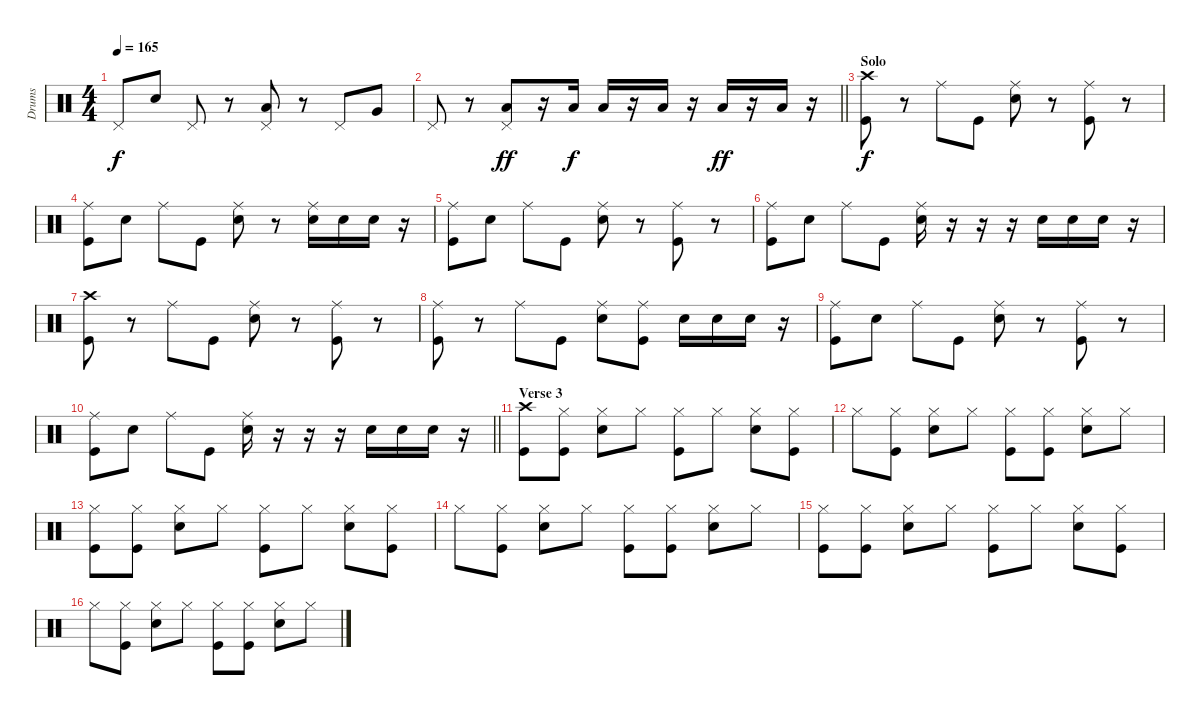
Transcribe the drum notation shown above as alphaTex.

\track ("Drums" "Drums") {instrument percussion}
\staff {score}
\articulation defaults
\ts (4 4)
\tempo 165
\clef neutral
\ks c "Pedal Hi-Hat (hit)".8{dy f} "Snare (hit) 2".8 "Pedal Hi-Hat (hit)".8
r.8 ("Pedal Hi-Hat (hit)" "Low Tom (hit)").8 r.8 "Pedal Hi-Hat (hit)".8 "Very Low Tom (hit)".8 |
\barLineRight lightlight "Pedal Hi-Hat (hit)".8
r.8 ("Pedal Hi-Hat (hit)" "Low Floor Tom (hit)").8{dy ff} r.16 "Low Tom (hit)".16{dy f} "Low Tom (hit)".16 r.16 "Low Tom (hit)".16 r.16 "Low Floor Tom (hit)".16{dy ff} r.16 "Low Floor Tom (hit)".16 r.16 |
\section ("" "Solo")
("Crash high (hit)" "Kick (hit)").8{dy f} r.8 "Ride (middle)".8 "Kick (hit)".8 ("Ride (middle)" "Snare (hit) 2").8 r.8 ("Ride (middle)" "Kick (hit)").8 r.8 |
("Ride (middle)" "Kick (hit)").8 "Snare (hit) 2".8 "Ride (middle)".8 "Kick (hit)".8 ("Ride (middle)" "Snare (hit) 2").8 r.8 ("Ride (middle)" "Snare (hit) 2").16 "Snare (hit) 2".16 "Snare (hit) 2".16 r.16 |
("Ride (middle)" "Kick (hit)").8 "Snare (hit) 2".8 "Ride (middle)".8 "Kick (hit)".8 ("Ride (middle)" "Snare (hit) 2").8 r.8 ("Ride (middle)" "Kick (hit)").8 r.8 |
("Ride (middle)" "Kick (hit)").8 "Snare (hit) 2".8 "Ride (middle)".8 "Kick (hit)".8 ("Ride (middle)" "Snare (hit) 2").16 r.16 r.16 r.16 "Snare (hit) 2".16 "Snare (hit) 2".16 "Snare (hit) 2".16 r.16 |
("Crash high (hit)" "Kick (hit)").8 r.8 "Ride (middle)".8 "Kick (hit)".8 ("Ride (middle)" "Snare (hit) 2").8 r.8 ("Ride (middle)" "Kick (hit)").8 r.8 |
("Ride (middle)" "Kick (hit)").8 r.8 "Ride (middle)".8 "Kick (hit)".8 ("Ride (middle)" "Snare (hit) 2").8 ("Ride (middle)" "Kick (hit)").8 "Snare (hit) 2".16 "Snare (hit) 2".16 "Snare (hit) 2".16 r.16 |
("Ride (middle)" "Kick (hit)").8 "Snare (hit) 2".8 "Ride (middle)".8 "Kick (hit)".8 ("Ride (middle)" "Snare (hit) 2").8 r.8 ("Ride (middle)" "Kick (hit)").8 r.8 |
\barLineRight lightlight
("Ride (middle)" "Kick (hit)").8 "Snare (hit) 2".8 "Ride (middle)".8 "Kick (hit)".8 ("Ride (middle)" "Snare (hit) 2").16 r.16 r.16 r.16 "Snare (hit) 2".16 "Snare (hit) 2".16 "Snare (hit) 2".16 r.16 |
\section ("" "Verse 3")
("Crash high (hit)" "Kick (hit)").8 ("Hi-Hat (closed)" "Kick (hit)").8 ("Hi-Hat (closed)" "Snare (hit) 2").8 "Hi-Hat (closed)".8 ("Hi-Hat (closed)" "Kick (hit)").8 "Hi-Hat (closed)".8 ("Hi-Hat (closed)" "Snare (hit) 2").8 ("Hi-Hat (closed)" "Kick (hit)").8 |
"Hi-Hat (closed)".8 ("Hi-Hat (closed)" "Kick (hit)").8 ("Hi-Hat (closed)" "Snare (hit) 2").8 "Hi-Hat (closed)".8 ("Hi-Hat (closed)" "Kick (hit)").8 ("Hi-Hat (closed)" "Kick (hit)").8 ("Hi-Hat (closed)" "Snare (hit) 2").8 "Hi-Hat (closed)".8 |
("Hi-Hat (closed)" "Kick (hit)").8 ("Hi-Hat (closed)" "Kick (hit)").8 ("Hi-Hat (closed)" "Snare (hit) 2").8 "Hi-Hat (closed)".8 ("Hi-Hat (closed)" "Kick (hit)").8 "Hi-Hat (closed)".8 ("Hi-Hat (closed)" "Snare (hit) 2").8 ("Hi-Hat (closed)" "Kick (hit)").8 |
"Hi-Hat (closed)".8 ("Hi-Hat (closed)" "Kick (hit)").8 ("Hi-Hat (closed)" "Snare (hit) 2").8 "Hi-Hat (closed)".8 ("Hi-Hat (closed)" "Kick (hit)").8 ("Hi-Hat (closed)" "Kick (hit)").8 ("Hi-Hat (closed)" "Snare (hit) 2").8 "Hi-Hat (closed)".8 |
("Hi-Hat (closed)" "Kick (hit)").8 ("Hi-Hat (closed)" "Kick (hit)").8 ("Hi-Hat (closed)" "Snare (hit) 2").8 "Hi-Hat (closed)".8 ("Hi-Hat (closed)" "Kick (hit)").8 "Hi-Hat (closed)".8 ("Hi-Hat (closed)" "Snare (hit) 2").8 ("Hi-Hat (closed)" "Kick (hit)").8 |
"Hi-Hat (closed)".8 ("Hi-Hat (closed)" "Kick (hit)").8 ("Hi-Hat (closed)" "Snare (hit) 2").8 "Hi-Hat (closed)".8 ("Hi-Hat (closed)" "Kick (hit)").8 ("Hi-Hat (closed)" "Kick (hit)").8 ("Hi-Hat (closed)" "Snare (hit) 2").8 "Hi-Hat (closed)".8
